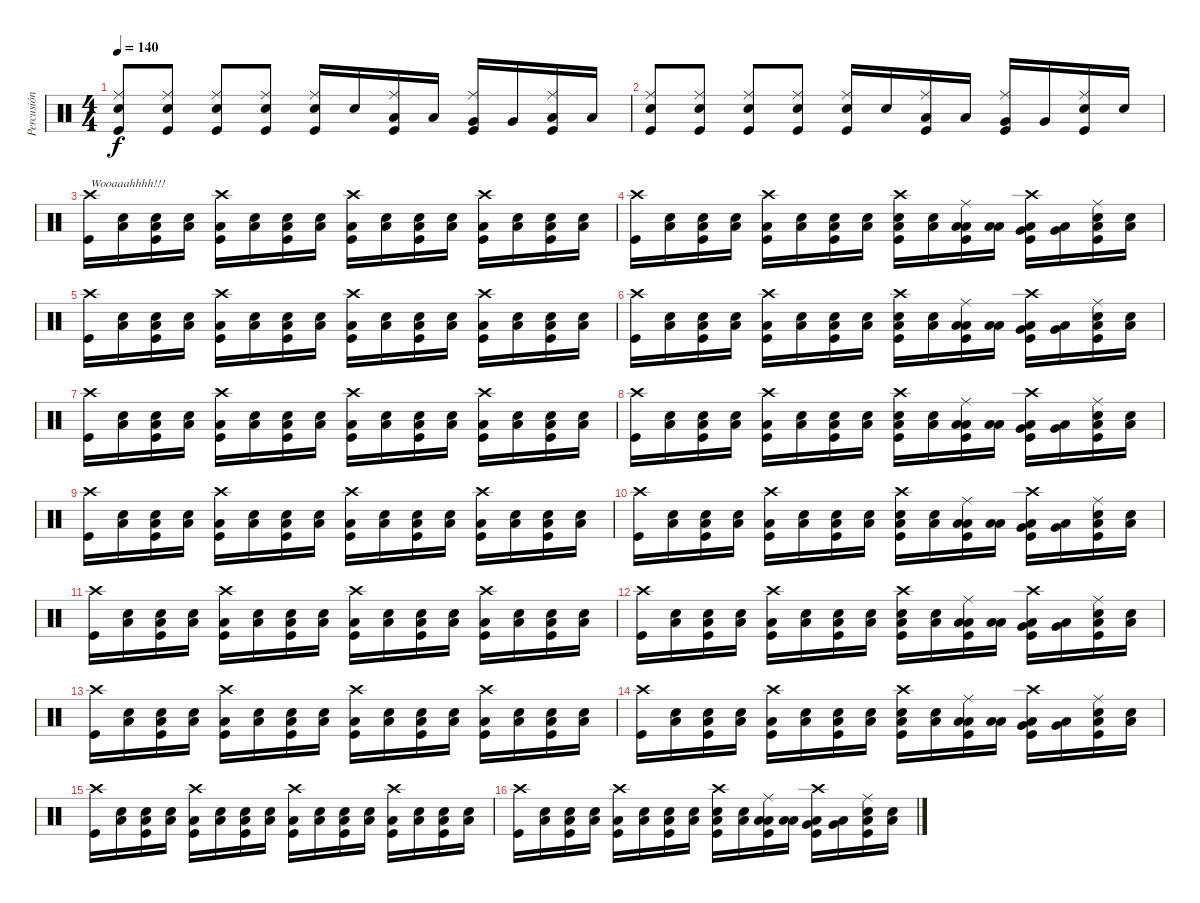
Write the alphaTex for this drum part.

\track ("Percusión" "Percusión") {instrument percussion}
\staff {score}
\articulation defaults
\ts (4 4)
\tempo 140
\clef neutral
\ks c
("Kick (hit)" "Ride (middle)" "Snare (hit) 2").8{dy f} ("Kick (hit)" "Ride (middle)" "Snare (hit) 2").8 ("Kick (hit)" "Ride (middle)" "Snare (hit) 2").8 ("Kick (hit)" "Ride (middle)" "Snare (hit) 2").8 ("Snare (hit) 2" "Ride (middle)" "Kick (hit)").16 "Snare (hit) 2".16 ("Low Floor Tom (hit)" "Ride (middle)" "Kick (hit)").16 "Low Floor Tom (hit)".16 ("Very Low Tom (hit)" "Ride (middle)" "Kick (hit)").16 "Very Low Tom (hit)".16 ("Low Tom (hit)" "Ride (middle)" "Kick (hit)").16 "Low Tom (hit)".16 |
("Kick (hit)" "Ride (middle)" "Snare (hit) 2").8 ("Kick (hit)" "Ride (middle)" "Snare (hit) 2").8 ("Kick (hit)" "Ride (middle)" "Snare (hit) 2").8 ("Kick (hit)" "Ride (middle)" "Snare (hit) 2").8 ("Snare (hit) 2" "Ride (middle)" "Kick (hit)").16 "Snare (hit) 2".16 ("Low Floor Tom (hit)" "Ride (middle)" "Kick (hit)").16 "Low Floor Tom (hit)".16 ("Very Low Tom (hit)" "Ride (middle)" "Kick (hit)").16 "Very Low Tom (hit)".16 ("Snare (hit) 2" "Ride (middle)" "Kick (hit)").16 "Snare (hit) 2".16 |
("Crash high (hit)" "Kick (hit)").16{txt "Wooaaahhhh!!!"} ("Snare (hit) 2" "Low Floor Tom (hit)").16 ("Snare (hit) 2" "Kick (hit)" "Low Floor Tom (hit)").16 ("Snare (hit) 2" "Low Floor Tom (hit)").16 ("Crash high (hit)" "Kick (hit)" "Low Floor Tom (hit)").16 ("Snare (hit) 2" "Low Floor Tom (hit)").16 ("Snare (hit) 2" "Kick (hit)" "Low Floor Tom (hit)").16 ("Snare (hit) 2" "Low Floor Tom (hit)").16 ("Crash high (hit)" "Kick (hit)" "Low Floor Tom (hit)").16 ("Snare (hit) 2" "Low Floor Tom (hit)").16 ("Snare (hit) 2" "Kick (hit)" "Low Floor Tom (hit)").16 ("Snare (hit) 2" "Low Floor Tom (hit)").16 ("Crash high (hit)" "Kick (hit)" "Low Floor Tom (hit)").16 ("Snare (hit) 2" "Low Floor Tom (hit)").16 ("Snare (hit) 2" "Kick (hit)" "Low Floor Tom (hit)").16 ("Snare (hit) 2" "Low Floor Tom (hit)").16 |
("Crash high (hit)" "Kick (hit)").16 ("Snare (hit) 2" "Low Floor Tom (hit)").16 ("Snare (hit) 2" "Kick (hit)" "Low Floor Tom (hit)").16 ("Snare (hit) 2" "Low Floor Tom (hit)").16 ("Crash high (hit)" "Kick (hit)" "Low Floor Tom (hit)").16 ("Snare (hit) 2" "Low Floor Tom (hit)").16 ("Snare (hit) 2" "Kick (hit)" "Low Floor Tom (hit)").16 ("Snare (hit) 2" "Low Floor Tom (hit)").16 ("Snare (hit) 2" "Crash high (hit)" "Kick (hit)" "Low Floor Tom (hit)").16 ("Snare (hit) 2" "Low Floor Tom (hit)").16 ("Low Floor Tom (hit)" "Ride (middle)" "Kick (hit)" "Low Floor Tom (hit)").16 ("Low Floor Tom (hit)" "Low Floor Tom (hit)").16 ("Very Low Tom (hit)" "Crash high (hit)" "Kick (hit)" "Low Floor Tom (hit)").16 ("Very Low Tom (hit)" "Low Floor Tom (hit)").16 ("Snare (hit) 2" "Ride (middle)" "Kick (hit)" "Low Floor Tom (hit)").16 ("Snare (hit) 2" "Low Floor Tom (hit)").16 |
("Crash high (hit)" "Kick (hit)").16 ("Snare (hit) 2" "Low Floor Tom (hit)").16 ("Snare (hit) 2" "Kick (hit)" "Low Floor Tom (hit)").16 ("Snare (hit) 2" "Low Floor Tom (hit)").16 ("Crash high (hit)" "Kick (hit)" "Low Floor Tom (hit)").16 ("Snare (hit) 2" "Low Floor Tom (hit)").16 ("Snare (hit) 2" "Kick (hit)" "Low Floor Tom (hit)").16 ("Snare (hit) 2" "Low Floor Tom (hit)").16 ("Crash high (hit)" "Kick (hit)" "Low Floor Tom (hit)").16 ("Snare (hit) 2" "Low Floor Tom (hit)").16 ("Snare (hit) 2" "Kick (hit)" "Low Floor Tom (hit)").16 ("Snare (hit) 2" "Low Floor Tom (hit)").16 ("Crash high (hit)" "Kick (hit)" "Low Floor Tom (hit)").16 ("Snare (hit) 2" "Low Floor Tom (hit)").16 ("Snare (hit) 2" "Kick (hit)" "Low Floor Tom (hit)").16 ("Snare (hit) 2" "Low Floor Tom (hit)").16 |
("Crash high (hit)" "Kick (hit)").16 ("Snare (hit) 2" "Low Floor Tom (hit)").16 ("Snare (hit) 2" "Kick (hit)" "Low Floor Tom (hit)").16 ("Snare (hit) 2" "Low Floor Tom (hit)").16 ("Crash high (hit)" "Kick (hit)" "Low Floor Tom (hit)").16 ("Snare (hit) 2" "Low Floor Tom (hit)").16 ("Snare (hit) 2" "Kick (hit)" "Low Floor Tom (hit)").16 ("Snare (hit) 2" "Low Floor Tom (hit)").16 ("Snare (hit) 2" "Crash high (hit)" "Kick (hit)" "Low Floor Tom (hit)").16 ("Snare (hit) 2" "Low Floor Tom (hit)").16 ("Low Floor Tom (hit)" "Ride (middle)" "Kick (hit)" "Low Floor Tom (hit)").16 ("Low Floor Tom (hit)" "Low Floor Tom (hit)").16 ("Very Low Tom (hit)" "Crash high (hit)" "Kick (hit)" "Low Floor Tom (hit)").16 ("Very Low Tom (hit)" "Low Floor Tom (hit)").16 ("Snare (hit) 2" "Ride (middle)" "Kick (hit)" "Low Floor Tom (hit)").16 ("Snare (hit) 2" "Low Floor Tom (hit)").16 |
("Crash high (hit)" "Kick (hit)").16 ("Snare (hit) 2" "Low Floor Tom (hit)").16 ("Snare (hit) 2" "Kick (hit)" "Low Floor Tom (hit)").16 ("Snare (hit) 2" "Low Floor Tom (hit)").16 ("Crash high (hit)" "Kick (hit)" "Low Floor Tom (hit)").16 ("Snare (hit) 2" "Low Floor Tom (hit)").16 ("Snare (hit) 2" "Kick (hit)" "Low Floor Tom (hit)").16 ("Snare (hit) 2" "Low Floor Tom (hit)").16 ("Crash high (hit)" "Kick (hit)" "Low Floor Tom (hit)").16 ("Snare (hit) 2" "Low Floor Tom (hit)").16 ("Snare (hit) 2" "Kick (hit)" "Low Floor Tom (hit)").16 ("Snare (hit) 2" "Low Floor Tom (hit)").16 ("Crash high (hit)" "Kick (hit)" "Low Floor Tom (hit)").16 ("Snare (hit) 2" "Low Floor Tom (hit)").16 ("Snare (hit) 2" "Kick (hit)" "Low Floor Tom (hit)").16 ("Snare (hit) 2" "Low Floor Tom (hit)").16 |
("Crash high (hit)" "Kick (hit)").16 ("Snare (hit) 2" "Low Floor Tom (hit)").16 ("Snare (hit) 2" "Kick (hit)" "Low Floor Tom (hit)").16 ("Snare (hit) 2" "Low Floor Tom (hit)").16 ("Crash high (hit)" "Kick (hit)" "Low Floor Tom (hit)").16 ("Snare (hit) 2" "Low Floor Tom (hit)").16 ("Snare (hit) 2" "Kick (hit)" "Low Floor Tom (hit)").16 ("Snare (hit) 2" "Low Floor Tom (hit)").16 ("Snare (hit) 2" "Crash high (hit)" "Kick (hit)" "Low Floor Tom (hit)").16 ("Snare (hit) 2" "Low Floor Tom (hit)").16 ("Low Floor Tom (hit)" "Ride (middle)" "Kick (hit)" "Low Floor Tom (hit)").16 ("Low Floor Tom (hit)" "Low Floor Tom (hit)").16 ("Very Low Tom (hit)" "Crash high (hit)" "Kick (hit)" "Low Floor Tom (hit)").16 ("Very Low Tom (hit)" "Low Floor Tom (hit)").16 ("Snare (hit) 2" "Ride (middle)" "Kick (hit)" "Low Floor Tom (hit)").16 ("Snare (hit) 2" "Low Floor Tom (hit)").16 |
("Crash high (hit)" "Kick (hit)").16 ("Snare (hit) 2" "Low Floor Tom (hit)").16 ("Snare (hit) 2" "Kick (hit)" "Low Floor Tom (hit)").16 ("Snare (hit) 2" "Low Floor Tom (hit)").16 ("Crash high (hit)" "Kick (hit)" "Low Floor Tom (hit)").16 ("Snare (hit) 2" "Low Floor Tom (hit)").16 ("Snare (hit) 2" "Kick (hit)" "Low Floor Tom (hit)").16 ("Snare (hit) 2" "Low Floor Tom (hit)").16 ("Crash high (hit)" "Kick (hit)" "Low Floor Tom (hit)").16 ("Snare (hit) 2" "Low Floor Tom (hit)").16 ("Snare (hit) 2" "Kick (hit)" "Low Floor Tom (hit)").16 ("Snare (hit) 2" "Low Floor Tom (hit)").16 ("Crash high (hit)" "Kick (hit)" "Low Floor Tom (hit)").16 ("Snare (hit) 2" "Low Floor Tom (hit)").16 ("Snare (hit) 2" "Kick (hit)" "Low Floor Tom (hit)").16 ("Snare (hit) 2" "Low Floor Tom (hit)").16 |
("Crash high (hit)" "Kick (hit)").16 ("Snare (hit) 2" "Low Floor Tom (hit)").16 ("Snare (hit) 2" "Kick (hit)" "Low Floor Tom (hit)").16 ("Snare (hit) 2" "Low Floor Tom (hit)").16 ("Crash high (hit)" "Kick (hit)" "Low Floor Tom (hit)").16 ("Snare (hit) 2" "Low Floor Tom (hit)").16 ("Snare (hit) 2" "Kick (hit)" "Low Floor Tom (hit)").16 ("Snare (hit) 2" "Low Floor Tom (hit)").16 ("Snare (hit) 2" "Crash high (hit)" "Kick (hit)" "Low Floor Tom (hit)").16 ("Snare (hit) 2" "Low Floor Tom (hit)").16 ("Low Floor Tom (hit)" "Ride (middle)" "Kick (hit)" "Low Floor Tom (hit)").16 ("Low Floor Tom (hit)" "Low Floor Tom (hit)").16 ("Very Low Tom (hit)" "Crash high (hit)" "Kick (hit)" "Low Floor Tom (hit)").16 ("Very Low Tom (hit)" "Low Floor Tom (hit)").16 ("Snare (hit) 2" "Ride (middle)" "Kick (hit)" "Low Floor Tom (hit)").16 ("Snare (hit) 2" "Low Floor Tom (hit)").16 |
("Crash high (hit)" "Kick (hit)").16 ("Snare (hit) 2" "Low Floor Tom (hit)").16 ("Snare (hit) 2" "Kick (hit)" "Low Floor Tom (hit)").16 ("Snare (hit) 2" "Low Floor Tom (hit)").16 ("Crash high (hit)" "Kick (hit)" "Low Floor Tom (hit)").16 ("Snare (hit) 2" "Low Floor Tom (hit)").16 ("Snare (hit) 2" "Kick (hit)" "Low Floor Tom (hit)").16 ("Snare (hit) 2" "Low Floor Tom (hit)").16 ("Crash high (hit)" "Kick (hit)" "Low Floor Tom (hit)").16 ("Snare (hit) 2" "Low Floor Tom (hit)").16 ("Snare (hit) 2" "Kick (hit)" "Low Floor Tom (hit)").16 ("Snare (hit) 2" "Low Floor Tom (hit)").16 ("Crash high (hit)" "Kick (hit)" "Low Floor Tom (hit)").16 ("Snare (hit) 2" "Low Floor Tom (hit)").16 ("Snare (hit) 2" "Kick (hit)" "Low Floor Tom (hit)").16 ("Snare (hit) 2" "Low Floor Tom (hit)").16 |
("Crash high (hit)" "Kick (hit)").16 ("Snare (hit) 2" "Low Floor Tom (hit)").16 ("Snare (hit) 2" "Kick (hit)" "Low Floor Tom (hit)").16 ("Snare (hit) 2" "Low Floor Tom (hit)").16 ("Crash high (hit)" "Kick (hit)" "Low Floor Tom (hit)").16 ("Snare (hit) 2" "Low Floor Tom (hit)").16 ("Snare (hit) 2" "Kick (hit)" "Low Floor Tom (hit)").16 ("Snare (hit) 2" "Low Floor Tom (hit)").16 ("Snare (hit) 2" "Crash high (hit)" "Kick (hit)" "Low Floor Tom (hit)").16 ("Snare (hit) 2" "Low Floor Tom (hit)").16 ("Low Floor Tom (hit)" "Ride (middle)" "Kick (hit)" "Low Floor Tom (hit)").16 ("Low Floor Tom (hit)" "Low Floor Tom (hit)").16 ("Very Low Tom (hit)" "Crash high (hit)" "Kick (hit)" "Low Floor Tom (hit)").16 ("Very Low Tom (hit)" "Low Floor Tom (hit)").16 ("Snare (hit) 2" "Ride (middle)" "Kick (hit)" "Low Floor Tom (hit)").16 ("Snare (hit) 2" "Low Floor Tom (hit)").16 |
("Crash high (hit)" "Kick (hit)").16 ("Snare (hit) 2" "Low Floor Tom (hit)").16 ("Snare (hit) 2" "Kick (hit)" "Low Floor Tom (hit)").16 ("Snare (hit) 2" "Low Floor Tom (hit)").16 ("Crash high (hit)" "Kick (hit)" "Low Floor Tom (hit)").16 ("Snare (hit) 2" "Low Floor Tom (hit)").16 ("Snare (hit) 2" "Kick (hit)" "Low Floor Tom (hit)").16 ("Snare (hit) 2" "Low Floor Tom (hit)").16 ("Crash high (hit)" "Kick (hit)" "Low Floor Tom (hit)").16 ("Snare (hit) 2" "Low Floor Tom (hit)").16 ("Snare (hit) 2" "Kick (hit)" "Low Floor Tom (hit)").16 ("Snare (hit) 2" "Low Floor Tom (hit)").16 ("Crash high (hit)" "Kick (hit)" "Low Floor Tom (hit)").16 ("Snare (hit) 2" "Low Floor Tom (hit)").16 ("Snare (hit) 2" "Kick (hit)" "Low Floor Tom (hit)").16 ("Snare (hit) 2" "Low Floor Tom (hit)").16 |
("Crash high (hit)" "Kick (hit)").16 ("Snare (hit) 2" "Low Floor Tom (hit)").16 ("Snare (hit) 2" "Kick (hit)" "Low Floor Tom (hit)").16 ("Snare (hit) 2" "Low Floor Tom (hit)").16 ("Crash high (hit)" "Kick (hit)" "Low Floor Tom (hit)").16 ("Snare (hit) 2" "Low Floor Tom (hit)").16 ("Snare (hit) 2" "Kick (hit)" "Low Floor Tom (hit)").16 ("Snare (hit) 2" "Low Floor Tom (hit)").16 ("Snare (hit) 2" "Crash high (hit)" "Kick (hit)" "Low Floor Tom (hit)").16 ("Snare (hit) 2" "Low Floor Tom (hit)").16 ("Low Floor Tom (hit)" "Ride (middle)" "Kick (hit)" "Low Floor Tom (hit)").16 ("Low Floor Tom (hit)" "Low Floor Tom (hit)").16 ("Very Low Tom (hit)" "Crash high (hit)" "Kick (hit)" "Low Floor Tom (hit)").16 ("Very Low Tom (hit)" "Low Floor Tom (hit)").16 ("Snare (hit) 2" "Ride (middle)" "Kick (hit)" "Low Floor Tom (hit)").16 ("Snare (hit) 2" "Low Floor Tom (hit)").16 |
("Crash high (hit)" "Kick (hit)").16 ("Snare (hit) 2" "Low Floor Tom (hit)").16 ("Snare (hit) 2" "Kick (hit)" "Low Floor Tom (hit)").16 ("Snare (hit) 2" "Low Floor Tom (hit)").16 ("Crash high (hit)" "Kick (hit)" "Low Floor Tom (hit)").16 ("Snare (hit) 2" "Low Floor Tom (hit)").16 ("Snare (hit) 2" "Kick (hit)" "Low Floor Tom (hit)").16 ("Snare (hit) 2" "Low Floor Tom (hit)").16 ("Crash high (hit)" "Kick (hit)" "Low Floor Tom (hit)").16 ("Snare (hit) 2" "Low Floor Tom (hit)").16 ("Snare (hit) 2" "Kick (hit)" "Low Floor Tom (hit)").16 ("Snare (hit) 2" "Low Floor Tom (hit)").16 ("Crash high (hit)" "Kick (hit)" "Low Floor Tom (hit)").16 ("Snare (hit) 2" "Low Floor Tom (hit)").16 ("Snare (hit) 2" "Kick (hit)" "Low Floor Tom (hit)").16 ("Snare (hit) 2" "Low Floor Tom (hit)").16 |
("Crash high (hit)" "Kick (hit)").16 ("Snare (hit) 2" "Low Floor Tom (hit)").16 ("Snare (hit) 2" "Kick (hit)" "Low Floor Tom (hit)").16 ("Snare (hit) 2" "Low Floor Tom (hit)").16 ("Crash high (hit)" "Kick (hit)" "Low Floor Tom (hit)").16 ("Snare (hit) 2" "Low Floor Tom (hit)").16 ("Snare (hit) 2" "Kick (hit)" "Low Floor Tom (hit)").16 ("Snare (hit) 2" "Low Floor Tom (hit)").16 ("Snare (hit) 2" "Crash high (hit)" "Kick (hit)" "Low Floor Tom (hit)").16 ("Snare (hit) 2" "Low Floor Tom (hit)").16 ("Low Floor Tom (hit)" "Ride (middle)" "Kick (hit)" "Low Floor Tom (hit)").16 ("Low Floor Tom (hit)" "Low Floor Tom (hit)").16 ("Very Low Tom (hit)" "Crash high (hit)" "Kick (hit)" "Low Floor Tom (hit)").16 ("Very Low Tom (hit)" "Low Floor Tom (hit)").16 ("Snare (hit) 2" "Ride (middle)" "Kick (hit)" "Low Floor Tom (hit)").16 ("Snare (hit) 2" "Low Floor Tom (hit)").16
